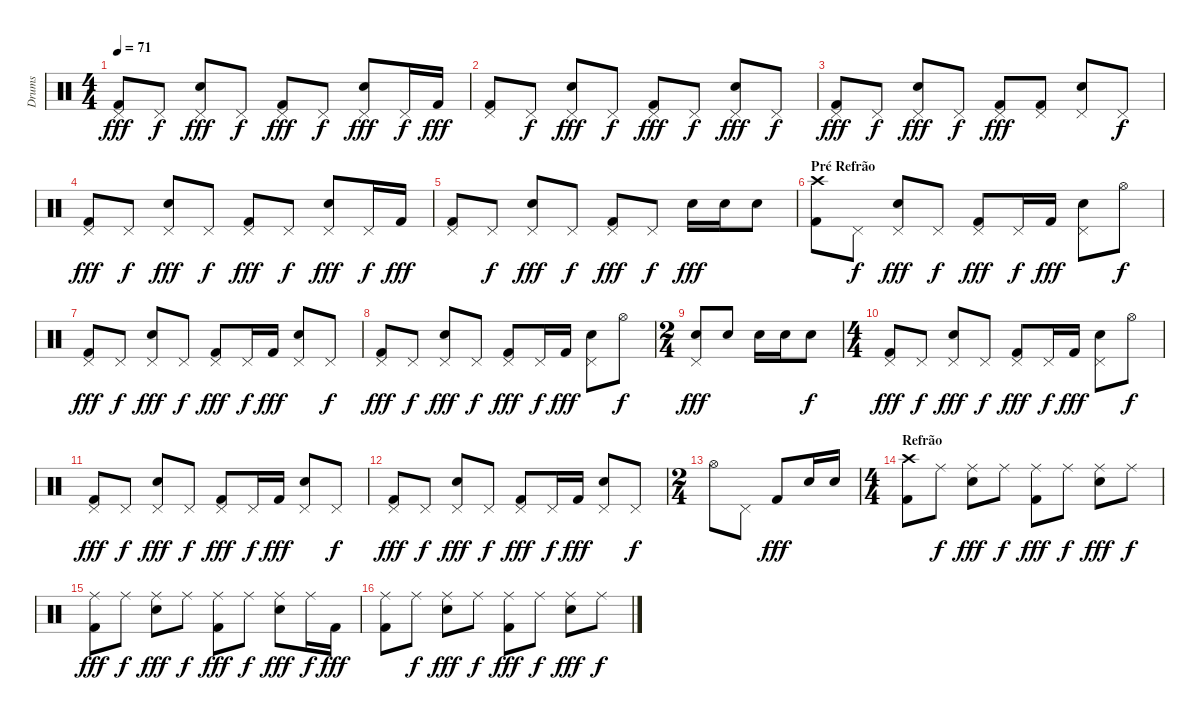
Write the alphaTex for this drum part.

\track ("Drums" "Drums") {instrument percussion}
\staff {score}
\articulation defaults
\ts (4 4)
\tempo 71
\clef neutral
\ks c
("Pedal Hi-Hat (hit)" "Kick (hit) 2").8{dy fff} "Pedal Hi-Hat (hit)".8{dy f} ("Pedal Hi-Hat (hit)" "Electric Snare (hit)").8{dy fff} "Pedal Hi-Hat (hit)".8{dy f} ("Pedal Hi-Hat (hit)" "Kick (hit) 2").8{dy fff} "Pedal Hi-Hat (hit)".8{dy f} ("Pedal Hi-Hat (hit)" "Electric Snare (hit)").8{dy fff} "Pedal Hi-Hat (hit)".16{dy f} "Kick (hit) 2".16{dy fff} |
("Pedal Hi-Hat (hit)" "Kick (hit) 2").8 "Pedal Hi-Hat (hit)".8{dy f} ("Pedal Hi-Hat (hit)" "Electric Snare (hit)").8{dy fff} "Pedal Hi-Hat (hit)".8{dy f} ("Pedal Hi-Hat (hit)" "Kick (hit) 2").8{dy fff} "Pedal Hi-Hat (hit)".8{dy f} ("Pedal Hi-Hat (hit)" "Electric Snare (hit)").8{dy fff} "Pedal Hi-Hat (hit)".8{dy f} |
("Pedal Hi-Hat (hit)" "Kick (hit) 2").8{dy fff} "Pedal Hi-Hat (hit)".8{dy f} ("Pedal Hi-Hat (hit)" "Electric Snare (hit)").8{dy fff} "Pedal Hi-Hat (hit)".8{dy f} ("Pedal Hi-Hat (hit)" "Kick (hit) 2").8{dy fff} ("Pedal Hi-Hat (hit)" "Kick (hit) 2").8 ("Pedal Hi-Hat (hit)" "Electric Snare (hit)").8 "Pedal Hi-Hat (hit)".8{dy f} |
("Pedal Hi-Hat (hit)" "Kick (hit) 2").8{dy fff} "Pedal Hi-Hat (hit)".8{dy f} ("Pedal Hi-Hat (hit)" "Electric Snare (hit)").8{dy fff} "Pedal Hi-Hat (hit)".8{dy f} ("Pedal Hi-Hat (hit)" "Kick (hit) 2").8{dy fff} "Pedal Hi-Hat (hit)".8{dy f} ("Pedal Hi-Hat (hit)" "Electric Snare (hit)").8{dy fff} "Pedal Hi-Hat (hit)".16{dy f} "Kick (hit) 2".16{dy fff} |
("Pedal Hi-Hat (hit)" "Kick (hit) 2").8 "Pedal Hi-Hat (hit)".8{dy f} ("Pedal Hi-Hat (hit)" "Electric Snare (hit)").8{dy fff} "Pedal Hi-Hat (hit)".8{dy f} ("Pedal Hi-Hat (hit)" "Kick (hit) 2").8{dy fff} "Pedal Hi-Hat (hit)".8{dy f} "Electric Snare (hit)".16{dy fff} "Electric Snare (hit)".16 "Electric Snare (hit)".8 |
\section ("" "Pré Refrão")
("Crash high (hit)" "Kick (hit) 2").8 "Pedal Hi-Hat (hit)".8{dy f} ("Pedal Hi-Hat (hit)" "Electric Snare (hit)").8{dy fff} "Pedal Hi-Hat (hit)".8{dy f} ("Pedal Hi-Hat (hit)" "Kick (hit) 2").8{dy fff} "Pedal Hi-Hat (hit)".16{dy f} "Kick (hit) 2".16{dy fff} ("Pedal Hi-Hat (hit)" "Electric Snare (hit)").8 "Hi-Hat (open)".8{dy f} |
("Pedal Hi-Hat (hit)" "Kick (hit) 2").8{dy fff} "Pedal Hi-Hat (hit)".8{dy f} ("Pedal Hi-Hat (hit)" "Electric Snare (hit)").8{dy fff} "Pedal Hi-Hat (hit)".8{dy f} ("Pedal Hi-Hat (hit)" "Kick (hit) 2").8{dy fff} "Pedal Hi-Hat (hit)".16{dy f} "Kick (hit) 2".16{dy fff} ("Pedal Hi-Hat (hit)" "Electric Snare (hit)").8 "Pedal Hi-Hat (hit)".8{dy f} |
("Pedal Hi-Hat (hit)" "Kick (hit) 2").8{dy fff} "Pedal Hi-Hat (hit)".8{dy f} ("Pedal Hi-Hat (hit)" "Electric Snare (hit)").8{dy fff} "Pedal Hi-Hat (hit)".8{dy f} ("Pedal Hi-Hat (hit)" "Kick (hit) 2").8{dy fff} "Pedal Hi-Hat (hit)".16{dy f} "Kick (hit) 2".16{dy fff} ("Pedal Hi-Hat (hit)" "Electric Snare (hit)").8 "Hi-Hat (open)".8{dy f} |
\ts (2 4)
("Electric Snare (hit)" "Pedal Hi-Hat (hit)").8{dy fff} "Electric Snare (hit)".8 "Electric Snare (hit)".16 "Electric Snare (hit)".16 "Electric Snare (hit)".8{dy f} |
\ts (4 4)
("Pedal Hi-Hat (hit)" "Kick (hit) 2").8{dy fff} "Pedal Hi-Hat (hit)".8{dy f} ("Pedal Hi-Hat (hit)" "Electric Snare (hit)").8{dy fff} "Pedal Hi-Hat (hit)".8{dy f} ("Pedal Hi-Hat (hit)" "Kick (hit) 2").8{dy fff} "Pedal Hi-Hat (hit)".16{dy f} "Kick (hit) 2".16{dy fff} ("Pedal Hi-Hat (hit)" "Electric Snare (hit)").8 "Hi-Hat (open)".8{dy f} |
("Pedal Hi-Hat (hit)" "Kick (hit) 2").8{dy fff} "Pedal Hi-Hat (hit)".8{dy f} ("Pedal Hi-Hat (hit)" "Electric Snare (hit)").8{dy fff} "Pedal Hi-Hat (hit)".8{dy f} ("Pedal Hi-Hat (hit)" "Kick (hit) 2").8{dy fff} "Pedal Hi-Hat (hit)".16{dy f} "Kick (hit) 2".16{dy fff} ("Pedal Hi-Hat (hit)" "Electric Snare (hit)").8 "Pedal Hi-Hat (hit)".8{dy f} |
("Pedal Hi-Hat (hit)" "Kick (hit) 2").8{dy fff} "Pedal Hi-Hat (hit)".8{dy f} ("Pedal Hi-Hat (hit)" "Electric Snare (hit)").8{dy fff} "Pedal Hi-Hat (hit)".8{dy f} ("Pedal Hi-Hat (hit)" "Kick (hit) 2").8{dy fff} "Pedal Hi-Hat (hit)".16{dy f} "Kick (hit) 2".16{dy fff} ("Pedal Hi-Hat (hit)" "Electric Snare (hit)").8 "Pedal Hi-Hat (hit)".8{dy f} |
\ts (2 4)
"Hi-Hat (open)".8 "Pedal Hi-Hat (hit)".8 "Kick (hit) 2".8{dy fff} "Electric Snare (hit)".16 "Electric Snare (hit)".16 |
\ts (4 4)
\section ("" "Refrão")
("Crash high (hit)" "Kick (hit) 2").8 "Ride (middle)".8{dy f} ("Ride (middle)" "Electric Snare (hit)").8{dy fff} "Ride (middle)".8{dy f} ("Ride (middle)" "Kick (hit) 2").8{dy fff} "Ride (middle)".8{dy f} ("Ride (middle)" "Electric Snare (hit)").8{dy fff} "Ride (middle)".8{dy f} |
("Ride (middle)" "Kick (hit) 2").8{dy fff} "Ride (middle)".8{dy f} ("Ride (middle)" "Electric Snare (hit)").8{dy fff} "Ride (middle)".8{dy f} ("Ride (middle)" "Kick (hit) 2").8{dy fff} "Ride (middle)".8{dy f} ("Ride (middle)" "Electric Snare (hit)").8{dy fff} "Ride (middle)".16{dy f} "Kick (hit) 2".16{dy fff} |
("Ride (middle)" "Kick (hit) 2").8 "Ride (middle)".8{dy f} ("Ride (middle)" "Electric Snare (hit)").8{dy fff} "Ride (middle)".8{dy f} ("Ride (middle)" "Kick (hit) 2").8{dy fff} "Ride (middle)".8{dy f} ("Ride (middle)" "Electric Snare (hit)").8{dy fff} "Ride (middle)".8{dy f}
